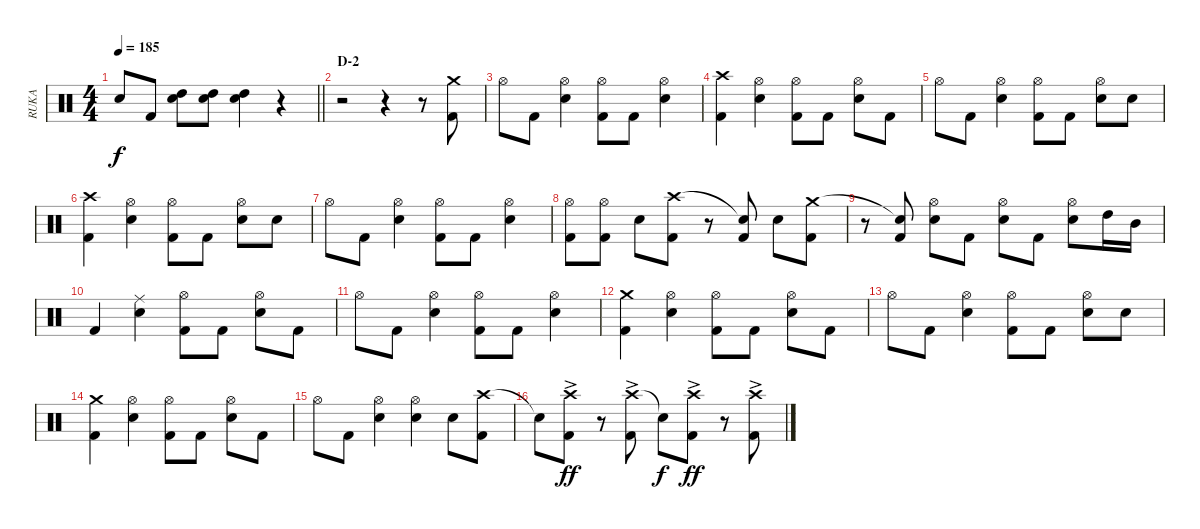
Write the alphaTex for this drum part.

\track ("RUKA" "RUKA") {instrument percussion}
\staff {score}
\articulation defaults
\ts (4 4)
\tempo 185
\clef neutral
\barLineRight lightlight
\ks c "Snare (hit)"{t}.8{dy f} "Kick (hit) 2".8
("High Tom (hit)" "Electric Snare (hit)").8 ("High Tom (hit)" "Electric Snare (hit)").8 ("High Tom (hit)" "Electric Snare (hit)").4 r.4 |
\section ("" "D-2")
r.2 r.4 r.8 ("Crash medium (hit)" "Kick (hit) 2").8 |
"Hi-Hat (open)".8 "Kick (hit) 2".8 ("Hi-Hat (open)" "Electric Snare (hit)").4 ("Hi-Hat (open)" "Kick (hit) 2").8 "Kick (hit) 2".8 ("Hi-Hat (open)" "Electric Snare (hit)").4 |
("Crash high (hit)" "Kick (hit) 2").4 ("Hi-Hat (open)" "Electric Snare (hit)").4 ("Hi-Hat (open)" "Kick (hit) 2").8 "Kick (hit) 2".8 ("Hi-Hat (open)" "Electric Snare (hit)").8 "Kick (hit) 2".8 |
"Hi-Hat (open)".8 "Kick (hit) 2".8 ("Hi-Hat (open)" "Electric Snare (hit)").4 ("Hi-Hat (open)" "Kick (hit) 2").8 "Kick (hit) 2".8 ("Hi-Hat (open)" "Electric Snare (hit)").8 "Electric Snare (hit)".8 |
("Crash high (hit)" "Kick (hit) 2").4 ("Hi-Hat (open)" "Electric Snare (hit)").4 ("Hi-Hat (open)" "Kick (hit) 2").8 "Kick (hit) 2".8 ("Hi-Hat (open)" "Electric Snare (hit)").8 "Electric Snare (hit)".8 |
"Hi-Hat (open)".8 "Kick (hit) 2".8 ("Hi-Hat (open)" "Electric Snare (hit)").4 ("Hi-Hat (open)" "Kick (hit) 2").8 "Kick (hit) 2".8 ("Hi-Hat (open)" "Electric Snare (hit)").4 |
("Hi-Hat (open)" "Kick (hit) 2").8 ("Hi-Hat (open)" "Kick (hit) 2").8 "Electric Snare (hit)".8 ("Crash high (hit)" "Kick (hit) 2").8 r.8 ("Snare (hit)"{t} "Kick (hit) 2").8 "Electric Snare (hit)".8 ("Crash medium (hit)" "Kick (hit) 2").8 |
r.8 ("Snare (hit)"{t} "Kick (hit) 2").8 ("Hi-Hat (open)" "Electric Snare (hit)").8 "Kick (hit) 2".8 ("Hi-Hat (open)" "Electric Snare (hit)").8 "Kick (hit) 2".8 ("Hi-Hat (open)" "Electric Snare (hit)").8 "High Tom (hit)".16 "Mid Tom (hit)".16 |
"Kick (hit) 2".4 ("Ride (middle)" "Electric Snare (hit)").4 ("Hi-Hat (open)" "Kick (hit) 2").8 "Kick (hit) 2".8 ("Hi-Hat (open)" "Electric Snare (hit)").8 "Kick (hit) 2".8 |
"Hi-Hat (open)".8 "Kick (hit) 2".8 ("Hi-Hat (open)" "Electric Snare (hit)").4 ("Hi-Hat (open)" "Kick (hit) 2").8 "Kick (hit) 2".8 ("Hi-Hat (open)" "Electric Snare (hit)").4 |
("Crash medium (hit)" "Kick (hit) 2").4 ("Hi-Hat (open)" "Electric Snare (hit)").4 ("Hi-Hat (open)" "Kick (hit) 2").8 "Kick (hit) 2".8 ("Hi-Hat (open)" "Electric Snare (hit)").8 "Kick (hit) 2".8 |
"Hi-Hat (open)".8 "Kick (hit) 2".8 ("Hi-Hat (open)" "Electric Snare (hit)").4 ("Hi-Hat (open)" "Kick (hit) 2").8 "Kick (hit) 2".8 ("Hi-Hat (open)" "Electric Snare (hit)").8 "Electric Snare (hit)".8 |
("Crash medium (hit)" "Kick (hit) 2").4 ("Hi-Hat (open)" "Electric Snare (hit)").4 ("Hi-Hat (open)" "Kick (hit) 2").8 "Kick (hit) 2".8 ("Hi-Hat (open)" "Electric Snare (hit)").8 "Kick (hit) 2".8 |
"Hi-Hat (open)".8 "Kick (hit) 2".8 ("Hi-Hat (open)" "Electric Snare (hit)").4 ("Hi-Hat (open)" "Electric Snare (hit)").4 "Electric Snare (hit)".8 ("Crash high (hit)" "Kick (hit) 2").8 |
"Snare (hit)"{t}.8 ("Crash high (hit)"{ac} "Kick (hit) 2").8{dy ff} r.8 ("Crash high (hit)"{ac} "Kick (hit) 2").8 "Snare (hit)"{t}.8{dy f} ("Crash high (hit)"{ac} "Kick (hit) 2").8{dy ff} r.8 ("Crash high (hit)"{ac} "Kick (hit) 2").8
